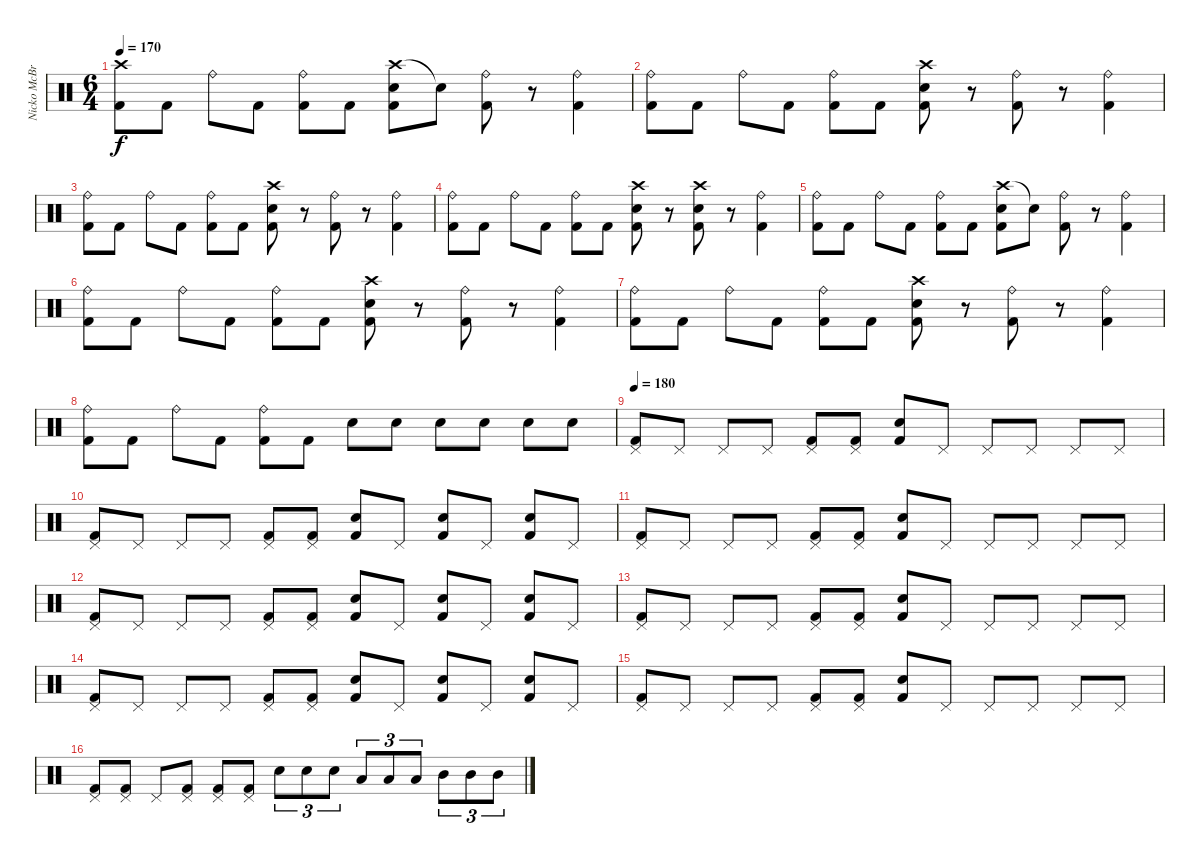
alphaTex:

\track ("Nicko McBrain" "Nicko McBr") {instrument percussion}
\staff {score}
\articulation defaults
\ts (6 4)
\tempo 170
\clef neutral
\ks c
("Crash high (hit)" "Kick (hit) 2").8{dy f balance 0} "Kick (hit) 2".8 "Ride (bell)".8 "Kick (hit) 2".8 ("Ride (bell)" "Kick (hit) 2").8 "Kick (hit) 2".8 ("Crash high (hit)" "Snare (hit) 2" "Kick (hit) 2").8 "Snare (hit) 2"{t}.8 ("Ride (bell)" "Kick (hit) 2").8 r.8 ("Ride (bell)" "Kick (hit) 2").4 |
("Ride (bell)" "Kick (hit) 2").8 "Kick (hit) 2".8 "Ride (bell)".8 "Kick (hit) 2".8 ("Ride (bell)" "Kick (hit) 2").8 "Kick (hit) 2".8 ("Crash high (hit)" "Snare (hit) 2" "Kick (hit) 2").8 r.8 ("Ride (bell)" "Kick (hit) 2").8 r.8 ("Ride (bell)" "Kick (hit) 2").4 |
("Ride (bell)" "Kick (hit) 2").8 "Kick (hit) 2".8 "Ride (bell)".8 "Kick (hit) 2".8 ("Ride (bell)" "Kick (hit) 2").8 "Kick (hit) 2".8 ("Snare (hit) 2" "Crash high (hit)" "Kick (hit) 2").8 r.8 ("Ride (bell)" "Kick (hit) 2").8 r.8 ("Ride (bell)" "Kick (hit) 2").4 |
("Ride (bell)" "Kick (hit) 2").8 "Kick (hit) 2".8 "Ride (bell)".8 "Kick (hit) 2".8 ("Ride (bell)" "Kick (hit) 2").8 "Kick (hit) 2".8 ("Crash high (hit)" "Snare (hit) 2" "Kick (hit) 2").8 r.8 ("Snare (hit) 2" "Crash high (hit)" "Kick (hit) 2").8 r.8 ("Ride (bell)" "Kick (hit) 2").4 |
("Ride (bell)" "Kick (hit) 2").8 "Kick (hit) 2".8 "Ride (bell)".8 "Kick (hit) 2".8 ("Ride (bell)" "Kick (hit) 2").8 "Kick (hit) 2".8 ("Crash high (hit)" "Snare (hit) 2" "Kick (hit) 2").8 "Snare (hit) 2"{t}.8 ("Ride (bell)" "Kick (hit) 2").8 r.8 ("Ride (bell)" "Kick (hit) 2").4 |
("Ride (bell)" "Kick (hit) 2").8 "Kick (hit) 2".8 "Ride (bell)".8 "Kick (hit) 2".8 ("Ride (bell)" "Kick (hit) 2").8 "Kick (hit) 2".8 ("Crash high (hit)" "Snare (hit) 2" "Kick (hit) 2").8 r.8 ("Ride (bell)" "Kick (hit) 2").8 r.8 ("Ride (bell)" "Kick (hit) 2").4 |
("Ride (bell)" "Kick (hit) 2").8 "Kick (hit) 2".8 "Ride (bell)".8 "Kick (hit) 2".8 ("Ride (bell)" "Kick (hit) 2").8 "Kick (hit) 2".8 ("Snare (hit) 2" "Crash high (hit)" "Kick (hit) 2").8 r.8 ("Ride (bell)" "Kick (hit) 2").8 r.8 ("Ride (bell)" "Kick (hit) 2").4 |
("Ride (bell)" "Kick (hit) 2").8 "Kick (hit) 2".8 "Ride (bell)".8 "Kick (hit) 2".8 ("Ride (bell)" "Kick (hit) 2").8 "Kick (hit) 2".8 "Snare (hit) 2".8 "Snare (hit) 2".8 "Snare (hit) 2".8 "Snare (hit) 2".8 "Snare (hit) 2".8 "Snare (hit) 2".8 |
\tempo 180
("Pedal Hi-Hat (hit)" "Kick (hit) 2").8 "Pedal Hi-Hat (hit)".8 "Pedal Hi-Hat (hit)".8 "Pedal Hi-Hat (hit)".8 ("Pedal Hi-Hat (hit)" "Kick (hit) 2").8 ("Pedal Hi-Hat (hit)" "Kick (hit) 2").8 ("Snare (hit) 2" "Kick (hit) 2").8 "Pedal Hi-Hat (hit)".8 "Pedal Hi-Hat (hit)".8 "Pedal Hi-Hat (hit)".8 "Pedal Hi-Hat (hit)".8 "Pedal Hi-Hat (hit)".8 |
("Pedal Hi-Hat (hit)" "Kick (hit) 2").8 "Pedal Hi-Hat (hit)".8 "Pedal Hi-Hat (hit)".8 "Pedal Hi-Hat (hit)".8 ("Pedal Hi-Hat (hit)" "Kick (hit) 2").8 ("Pedal Hi-Hat (hit)" "Kick (hit) 2").8 ("Snare (hit) 2" "Kick (hit) 2").8 "Pedal Hi-Hat (hit)".8 ("Snare (hit) 2" "Kick (hit) 2").8 "Pedal Hi-Hat (hit)".8 ("Snare (hit) 2" "Kick (hit) 2").8 "Pedal Hi-Hat (hit)".8 |
("Pedal Hi-Hat (hit)" "Kick (hit) 2").8 "Pedal Hi-Hat (hit)".8 "Pedal Hi-Hat (hit)".8 "Pedal Hi-Hat (hit)".8 ("Pedal Hi-Hat (hit)" "Kick (hit) 2").8 ("Pedal Hi-Hat (hit)" "Kick (hit) 2").8 ("Snare (hit) 2" "Kick (hit) 2").8 "Pedal Hi-Hat (hit)".8 "Pedal Hi-Hat (hit)".8 "Pedal Hi-Hat (hit)".8 "Pedal Hi-Hat (hit)".8 "Pedal Hi-Hat (hit)".8 |
("Pedal Hi-Hat (hit)" "Kick (hit) 2").8 "Pedal Hi-Hat (hit)".8 "Pedal Hi-Hat (hit)".8 "Pedal Hi-Hat (hit)".8 ("Pedal Hi-Hat (hit)" "Kick (hit) 2").8 ("Pedal Hi-Hat (hit)" "Kick (hit) 2").8 ("Snare (hit) 2" "Kick (hit) 2").8 "Pedal Hi-Hat (hit)".8 ("Snare (hit) 2" "Kick (hit) 2").8 "Pedal Hi-Hat (hit)".8 ("Snare (hit) 2" "Kick (hit) 2").8 "Pedal Hi-Hat (hit)".8 |
("Pedal Hi-Hat (hit)" "Kick (hit) 2").8 "Pedal Hi-Hat (hit)".8 "Pedal Hi-Hat (hit)".8 "Pedal Hi-Hat (hit)".8 ("Pedal Hi-Hat (hit)" "Kick (hit) 2").8 ("Pedal Hi-Hat (hit)" "Kick (hit) 2").8 ("Snare (hit) 2" "Kick (hit) 2").8 "Pedal Hi-Hat (hit)".8 "Pedal Hi-Hat (hit)".8 "Pedal Hi-Hat (hit)".8 "Pedal Hi-Hat (hit)".8 "Pedal Hi-Hat (hit)".8 |
("Pedal Hi-Hat (hit)" "Kick (hit) 2").8 "Pedal Hi-Hat (hit)".8 "Pedal Hi-Hat (hit)".8 "Pedal Hi-Hat (hit)".8 ("Pedal Hi-Hat (hit)" "Kick (hit) 2").8 ("Pedal Hi-Hat (hit)" "Kick (hit) 2").8 ("Snare (hit) 2" "Kick (hit) 2").8 "Pedal Hi-Hat (hit)".8 ("Snare (hit) 2" "Kick (hit) 2").8 "Pedal Hi-Hat (hit)".8 ("Snare (hit) 2" "Kick (hit) 2").8 "Pedal Hi-Hat (hit)".8 |
("Pedal Hi-Hat (hit)" "Kick (hit) 2").8 "Pedal Hi-Hat (hit)".8 "Pedal Hi-Hat (hit)".8 "Pedal Hi-Hat (hit)".8 ("Pedal Hi-Hat (hit)" "Kick (hit) 2").8 ("Pedal Hi-Hat (hit)" "Kick (hit) 2").8 ("Snare (hit) 2" "Kick (hit) 2").8 "Pedal Hi-Hat (hit)".8 "Pedal Hi-Hat (hit)".8 "Pedal Hi-Hat (hit)".8 "Pedal Hi-Hat (hit)".8 "Pedal Hi-Hat (hit)".8 |
("Pedal Hi-Hat (hit)" "Kick (hit) 2").8 ("Pedal Hi-Hat (hit)" "Kick (hit) 2").8 "Pedal Hi-Hat (hit)".8 ("Pedal Hi-Hat (hit)" "Kick (hit) 2").8 ("Pedal Hi-Hat (hit)" "Kick (hit) 2").8 ("Pedal Hi-Hat (hit)" "Kick (hit) 2").8 "Snare (hit) 2".8{tu (3 2)} "Snare (hit) 2".8{tu (3 2)} "Snare (hit) 2".8{tu (3 2)} "Low Tom (hit)".8{tu (3 2)} "Low Tom (hit)".8{tu (3 2)} "Low Tom (hit)".8{tu (3 2)} "Mid Tom (hit)".8{tu (3 2)} "Mid Tom (hit)".8{tu (3 2)} "Mid Tom (hit)".8{tu (3 2)}
